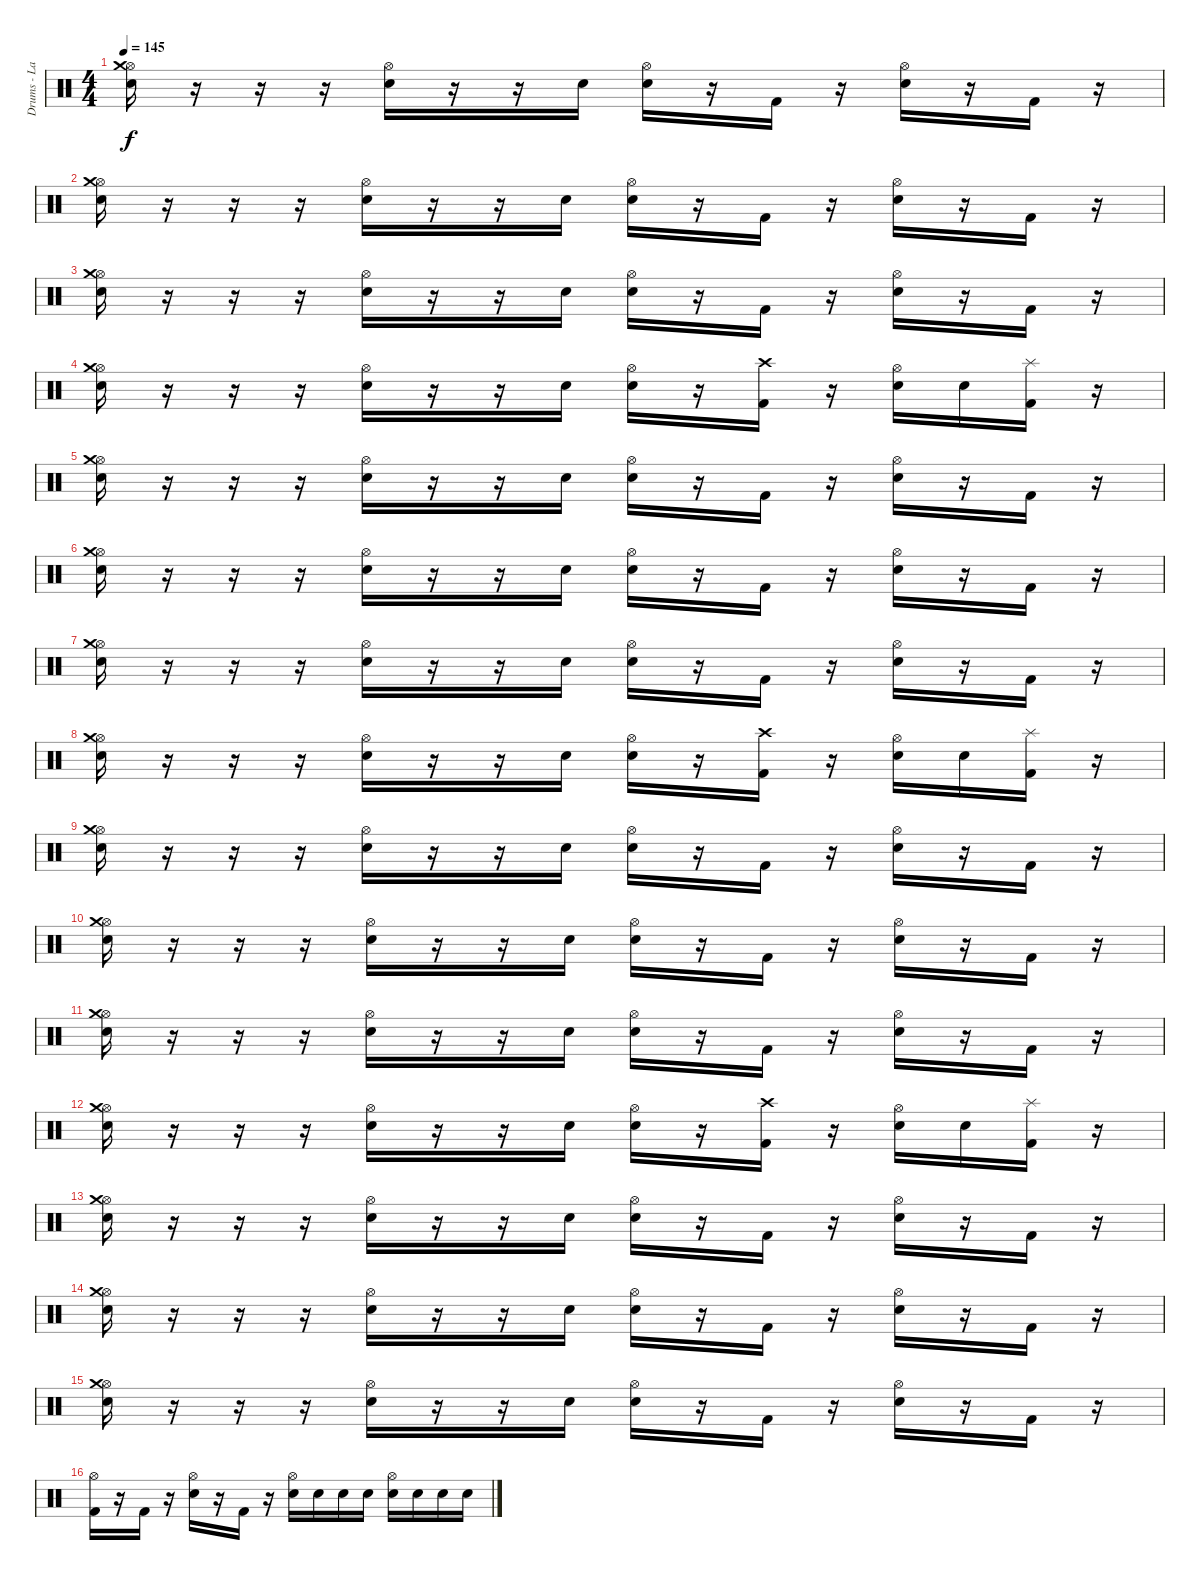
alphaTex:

\track ("Drums - Larry Gorman" "Drums - La") {instrument percussion}
\staff {score}
\articulation defaults
\ts (4 4)
\tempo 145
\clef neutral
\ks c
("Hi-Hat (open)" "Crash medium (hit)" "Electric Snare (hit)").16{dy f} r.16 r.16 r.16 ("Hi-Hat (open)" "Electric Snare (hit)").16 r.16 r.16 "Electric Snare (hit)".16 ("Hi-Hat (open)" "Electric Snare (hit)").16 r.16 "Kick (hit) 2".16 r.16 ("Hi-Hat (open)" "Electric Snare (hit)").16 r.16 "Kick (hit) 2".16 r.16 |
("Hi-Hat (open)" "Crash medium (hit)" "Electric Snare (hit)").16 r.16 r.16 r.16 ("Hi-Hat (open)" "Electric Snare (hit)").16 r.16 r.16 "Electric Snare (hit)".16 ("Hi-Hat (open)" "Electric Snare (hit)").16 r.16 "Kick (hit) 2".16 r.16 ("Hi-Hat (open)" "Electric Snare (hit)").16 r.16 "Kick (hit) 2".16 r.16 |
("Hi-Hat (open)" "Crash medium (hit)" "Electric Snare (hit)").16 r.16 r.16 r.16 ("Hi-Hat (open)" "Electric Snare (hit)").16 r.16 r.16 "Electric Snare (hit)".16 ("Hi-Hat (open)" "Electric Snare (hit)").16 r.16 "Kick (hit) 2".16 r.16 ("Hi-Hat (open)" "Electric Snare (hit)").16 r.16 "Kick (hit) 2".16 r.16 |
("Hi-Hat (open)" "Crash medium (hit)" "Electric Snare (hit)").16 r.16 r.16 r.16 ("Hi-Hat (open)" "Electric Snare (hit)").16 r.16 r.16 "Electric Snare (hit)".16 ("Hi-Hat (open)" "Electric Snare (hit)").16 r.16 ("Crash high (hit)" "Kick (hit) 2").16 r.16 ("Hi-Hat (open)" "Electric Snare (hit)").16 "Electric Snare (hit)".16 ("Splash (hit)" "Kick (hit) 2").16 r.16 |
("Hi-Hat (open)" "Crash medium (hit)" "Electric Snare (hit)").16 r.16 r.16 r.16 ("Hi-Hat (open)" "Electric Snare (hit)").16 r.16 r.16 "Electric Snare (hit)".16 ("Hi-Hat (open)" "Electric Snare (hit)").16 r.16 "Kick (hit) 2".16 r.16 ("Hi-Hat (open)" "Electric Snare (hit)").16 r.16 "Kick (hit) 2".16 r.16 |
("Hi-Hat (open)" "Crash medium (hit)" "Electric Snare (hit)").16 r.16 r.16 r.16 ("Hi-Hat (open)" "Electric Snare (hit)").16 r.16 r.16 "Electric Snare (hit)".16 ("Hi-Hat (open)" "Electric Snare (hit)").16 r.16 "Kick (hit) 2".16 r.16 ("Hi-Hat (open)" "Electric Snare (hit)").16 r.16 "Kick (hit) 2".16 r.16 |
("Hi-Hat (open)" "Crash medium (hit)" "Electric Snare (hit)").16 r.16 r.16 r.16 ("Hi-Hat (open)" "Electric Snare (hit)").16 r.16 r.16 "Electric Snare (hit)".16 ("Hi-Hat (open)" "Electric Snare (hit)").16 r.16 "Kick (hit) 2".16 r.16 ("Hi-Hat (open)" "Electric Snare (hit)").16 r.16 "Kick (hit) 2".16 r.16 |
("Hi-Hat (open)" "Crash medium (hit)" "Electric Snare (hit)").16 r.16 r.16 r.16 ("Hi-Hat (open)" "Electric Snare (hit)").16 r.16 r.16 "Electric Snare (hit)".16 ("Hi-Hat (open)" "Electric Snare (hit)").16 r.16 ("Crash high (hit)" "Kick (hit) 2").16 r.16 ("Hi-Hat (open)" "Electric Snare (hit)").16 "Electric Snare (hit)".16 ("Splash (hit)" "Kick (hit) 2").16 r.16 |
("Hi-Hat (open)" "Crash medium (hit)" "Electric Snare (hit)").16 r.16 r.16 r.16 ("Hi-Hat (open)" "Electric Snare (hit)").16 r.16 r.16 "Electric Snare (hit)".16 ("Hi-Hat (open)" "Electric Snare (hit)").16 r.16 "Kick (hit) 2".16 r.16 ("Hi-Hat (open)" "Electric Snare (hit)").16 r.16 "Kick (hit) 2".16 r.16 |
("Hi-Hat (open)" "Crash medium (hit)" "Electric Snare (hit)").16 r.16 r.16 r.16 ("Hi-Hat (open)" "Electric Snare (hit)").16 r.16 r.16 "Electric Snare (hit)".16 ("Hi-Hat (open)" "Electric Snare (hit)").16 r.16 "Kick (hit) 2".16 r.16 ("Hi-Hat (open)" "Electric Snare (hit)").16 r.16 "Kick (hit) 2".16 r.16 |
("Hi-Hat (open)" "Crash medium (hit)" "Electric Snare (hit)").16 r.16 r.16 r.16 ("Hi-Hat (open)" "Electric Snare (hit)").16 r.16 r.16 "Electric Snare (hit)".16 ("Hi-Hat (open)" "Electric Snare (hit)").16 r.16 "Kick (hit) 2".16 r.16 ("Hi-Hat (open)" "Electric Snare (hit)").16 r.16 "Kick (hit) 2".16 r.16 |
("Hi-Hat (open)" "Crash medium (hit)" "Electric Snare (hit)").16 r.16 r.16 r.16 ("Hi-Hat (open)" "Electric Snare (hit)").16 r.16 r.16 "Electric Snare (hit)".16 ("Hi-Hat (open)" "Electric Snare (hit)").16 r.16 ("Crash high (hit)" "Kick (hit) 2").16 r.16 ("Hi-Hat (open)" "Electric Snare (hit)").16 "Electric Snare (hit)".16 ("Splash (hit)" "Kick (hit) 2").16 r.16 |
("Hi-Hat (open)" "Crash medium (hit)" "Electric Snare (hit)").16 r.16 r.16 r.16 ("Hi-Hat (open)" "Electric Snare (hit)").16 r.16 r.16 "Electric Snare (hit)".16 ("Hi-Hat (open)" "Electric Snare (hit)").16 r.16 "Kick (hit) 2".16 r.16 ("Hi-Hat (open)" "Electric Snare (hit)").16 r.16 "Kick (hit) 2".16 r.16 |
("Hi-Hat (open)" "Crash medium (hit)" "Electric Snare (hit)").16 r.16 r.16 r.16 ("Hi-Hat (open)" "Electric Snare (hit)").16 r.16 r.16 "Electric Snare (hit)".16 ("Hi-Hat (open)" "Electric Snare (hit)").16 r.16 "Kick (hit) 2".16 r.16 ("Hi-Hat (open)" "Electric Snare (hit)").16 r.16 "Kick (hit) 2".16 r.16 |
("Hi-Hat (open)" "Crash medium (hit)" "Electric Snare (hit)").16 r.16 r.16 r.16 ("Hi-Hat (open)" "Electric Snare (hit)").16 r.16 r.16 "Electric Snare (hit)".16 ("Hi-Hat (open)" "Electric Snare (hit)").16 r.16 "Kick (hit) 2".16 r.16 ("Hi-Hat (open)" "Electric Snare (hit)").16 r.16 "Kick (hit) 2".16 r.16 |
("Hi-Hat (open)" "Kick (hit) 2").16 r.16 "Kick (hit) 2".16 r.16 ("Hi-Hat (open)" "Electric Snare (hit)").16 r.16 "Kick (hit) 2".16 r.16 ("Hi-Hat (open)" "Electric Snare (hit)").16 "Electric Snare (hit)".16 "Electric Snare (hit)".16 "Electric Snare (hit)".16 ("Hi-Hat (open)" "Electric Snare (hit)").16 "Electric Snare (hit)".16 "Electric Snare (hit)".16 "Electric Snare (hit)".16
